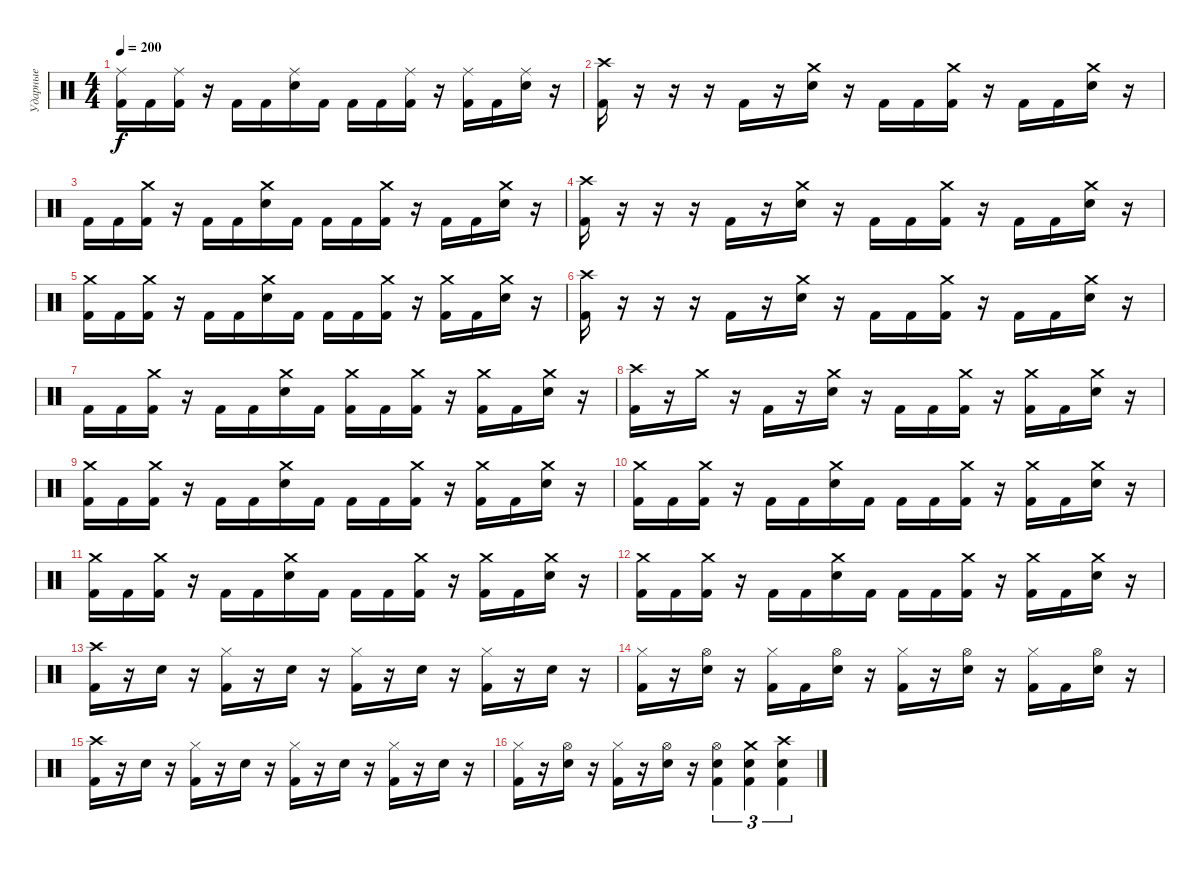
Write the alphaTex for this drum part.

\track ("Ударные" "Ударные") {instrument percussion}
\staff {score}
\articulation defaults
\ts (4 4)
\tempo 200
\clef neutral
\ks c
("Ride (middle)" "Kick (hit) 2").16{dy f} "Kick (hit) 2".16 ("Ride (middle)" "Kick (hit) 2").16 r.16 "Kick (hit) 2".16 "Kick (hit) 2".16 ("Ride (middle)" "Electric Snare (hit)").16 "Kick (hit) 2".16 "Kick (hit) 2".16 "Kick (hit) 2".16 ("Ride (middle)" "Kick (hit) 2").16 r.16 ("Ride (middle)" "Kick (hit) 2").16 "Kick (hit) 2".16 ("Ride (middle)" "Electric Snare (hit)").16 r.16 |
("Crash high (hit)" "Kick (hit) 2").16 r.16 r.16 r.16 "Kick (hit) 2".16 r.16 ("Crash medium (hit)" "Electric Snare (hit)").16 r.16 "Kick (hit) 2".16 "Kick (hit) 2".16 ("Crash medium (hit)" "Kick (hit) 2").16 r.16 "Kick (hit) 2".16 "Kick (hit) 2".16 ("Crash medium (hit)" "Electric Snare (hit)").16 r.16 |
"Kick (hit) 2".16 "Kick (hit) 2".16 ("Crash medium (hit)" "Kick (hit) 2").16 r.16 "Kick (hit) 2".16 "Kick (hit) 2".16 ("Crash medium (hit)" "Electric Snare (hit)").16 "Kick (hit) 2".16 "Kick (hit) 2".16 "Kick (hit) 2".16 ("Crash medium (hit)" "Kick (hit) 2").16 r.16 "Kick (hit) 2".16 "Kick (hit) 2".16 ("Crash medium (hit)" "Electric Snare (hit)").16 r.16 |
("Crash high (hit)" "Kick (hit) 2").16 r.16 r.16 r.16 "Kick (hit) 2".16 r.16 ("Crash medium (hit)" "Electric Snare (hit)").16 r.16 "Kick (hit) 2".16 "Kick (hit) 2".16 ("Crash medium (hit)" "Kick (hit) 2").16 r.16 "Kick (hit) 2".16 "Kick (hit) 2".16 ("Crash medium (hit)" "Electric Snare (hit)").16 r.16 |
("Crash medium (hit)" "Kick (hit) 2").16 "Kick (hit) 2".16 ("Crash medium (hit)" "Kick (hit) 2").16 r.16 "Kick (hit) 2".16 "Kick (hit) 2".16 ("Crash medium (hit)" "Electric Snare (hit)").16 "Kick (hit) 2".16 "Kick (hit) 2".16 "Kick (hit) 2".16 ("Crash medium (hit)" "Kick (hit) 2").16 r.16 ("Crash medium (hit)" "Kick (hit) 2").16 "Kick (hit) 2".16 ("Crash medium (hit)" "Electric Snare (hit)").16 r.16 |
("Crash high (hit)" "Kick (hit) 2").16 r.16 r.16 r.16 "Kick (hit) 2".16 r.16 ("Crash medium (hit)" "Electric Snare (hit)").16 r.16 "Kick (hit) 2".16 "Kick (hit) 2".16 ("Crash medium (hit)" "Kick (hit) 2").16 r.16 "Kick (hit) 2".16 "Kick (hit) 2".16 ("Crash medium (hit)" "Electric Snare (hit)").16 r.16 |
"Kick (hit) 2".16 "Kick (hit) 2".16 ("Crash medium (hit)" "Kick (hit) 2").16 r.16 "Kick (hit) 2".16 "Kick (hit) 2".16 ("Crash medium (hit)" "Electric Snare (hit)").16 "Kick (hit) 2".16 ("Crash medium (hit)" "Kick (hit) 2").16 "Kick (hit) 2".16 ("Crash medium (hit)" "Kick (hit) 2").16 r.16 ("Crash medium (hit)" "Kick (hit) 2").16 "Kick (hit) 2".16 ("Crash medium (hit)" "Electric Snare (hit)").16 r.16 |
("Crash high (hit)" "Kick (hit) 2").16 r.16 "Crash medium (hit)".16 r.16 "Kick (hit) 2".16 r.16 ("Crash medium (hit)" "Electric Snare (hit)").16 r.16 "Kick (hit) 2".16 "Kick (hit) 2".16 ("Crash medium (hit)" "Kick (hit) 2").16 r.16 ("Crash medium (hit)" "Kick (hit) 2").16 "Kick (hit) 2".16 ("Crash medium (hit)" "Electric Snare (hit)").16 r.16 |
("Crash medium (hit)" "Kick (hit) 2").16 "Kick (hit) 2".16 ("Crash medium (hit)" "Kick (hit) 2").16 r.16 "Kick (hit) 2".16 "Kick (hit) 2".16 ("Crash medium (hit)" "Electric Snare (hit)").16 "Kick (hit) 2".16 "Kick (hit) 2".16 "Kick (hit) 2".16 ("Crash medium (hit)" "Kick (hit) 2").16 r.16 ("Crash medium (hit)" "Kick (hit) 2").16 "Kick (hit) 2".16 ("Crash medium (hit)" "Electric Snare (hit)").16 r.16 |
("Crash medium (hit)" "Kick (hit) 2").16 "Kick (hit) 2".16 ("Crash medium (hit)" "Kick (hit) 2").16 r.16 "Kick (hit) 2".16 "Kick (hit) 2".16 ("Crash medium (hit)" "Electric Snare (hit)").16 "Kick (hit) 2".16 "Kick (hit) 2".16 "Kick (hit) 2".16 ("Crash medium (hit)" "Kick (hit) 2").16 r.16 ("Crash medium (hit)" "Kick (hit) 2").16 "Kick (hit) 2".16 ("Crash medium (hit)" "Electric Snare (hit)").16 r.16 |
("Crash medium (hit)" "Kick (hit) 2").16 "Kick (hit) 2".16 ("Crash medium (hit)" "Kick (hit) 2").16 r.16 "Kick (hit) 2".16 "Kick (hit) 2".16 ("Crash medium (hit)" "Electric Snare (hit)").16 "Kick (hit) 2".16 "Kick (hit) 2".16 "Kick (hit) 2".16 ("Crash medium (hit)" "Kick (hit) 2").16 r.16 ("Crash medium (hit)" "Kick (hit) 2").16 "Kick (hit) 2".16 ("Crash medium (hit)" "Electric Snare (hit)").16 r.16 |
("Crash medium (hit)" "Kick (hit) 2").16 "Kick (hit) 2".16 ("Crash medium (hit)" "Kick (hit) 2").16 r.16 "Kick (hit) 2".16 "Kick (hit) 2".16 ("Crash medium (hit)" "Electric Snare (hit)").16 "Kick (hit) 2".16 "Kick (hit) 2".16 "Kick (hit) 2".16 ("Crash medium (hit)" "Kick (hit) 2").16 r.16 ("Crash medium (hit)" "Kick (hit) 2").16 "Kick (hit) 2".16 ("Crash medium (hit)" "Electric Snare (hit)").16 r.16 |
("Crash high (hit)" "Kick (hit) 2").16 r.16 "Electric Snare (hit)".16 r.16 ("Hi-Hat (closed)" "Kick (hit) 2").16 r.16 "Electric Snare (hit)".16 r.16 ("Hi-Hat (closed)" "Kick (hit) 2").16 r.16 "Electric Snare (hit)".16 r.16 ("Hi-Hat (closed)" "Kick (hit) 2").16 r.16 "Electric Snare (hit)".16 r.16 |
("Hi-Hat (closed)" "Kick (hit) 2").16 r.16 ("Hi-Hat (open)" "Electric Snare (hit)").16 r.16 ("Hi-Hat (closed)" "Kick (hit) 2").16 "Kick (hit) 2".16 ("Hi-Hat (open)" "Electric Snare (hit)").16 r.16 ("Hi-Hat (closed)" "Kick (hit) 2").16 r.16 ("Hi-Hat (open)" "Electric Snare (hit)").16 r.16 ("Hi-Hat (closed)" "Kick (hit) 2").16 "Kick (hit) 2".16 ("Hi-Hat (open)" "Electric Snare (hit)").16 r.16 |
("Crash high (hit)" "Kick (hit) 2").16 r.16 "Electric Snare (hit)".16 r.16 ("Hi-Hat (closed)" "Kick (hit) 2").16 r.16 "Electric Snare (hit)".16 r.16 ("Hi-Hat (closed)" "Kick (hit) 2").16 r.16 "Electric Snare (hit)".16 r.16 ("Hi-Hat (closed)" "Kick (hit) 2").16 r.16 "Electric Snare (hit)".16 r.16 |
("Hi-Hat (closed)" "Kick (hit) 2").16 r.16 ("Hi-Hat (open)" "Electric Snare (hit)").16 r.16 ("Hi-Hat (closed)" "Kick (hit) 2").16 r.16 ("Hi-Hat (open)" "Electric Snare (hit)").16 r.16 ("Hi-Hat (open)" "Electric Snare (hit)" "Kick (hit) 2").4{tu (3 2)} ("Crash medium (hit)" "Electric Snare (hit)" "Kick (hit) 2").4{tu (3 2)} ("Crash high (hit)" "Electric Snare (hit)" "Kick (hit) 2").4{tu (3 2)}
